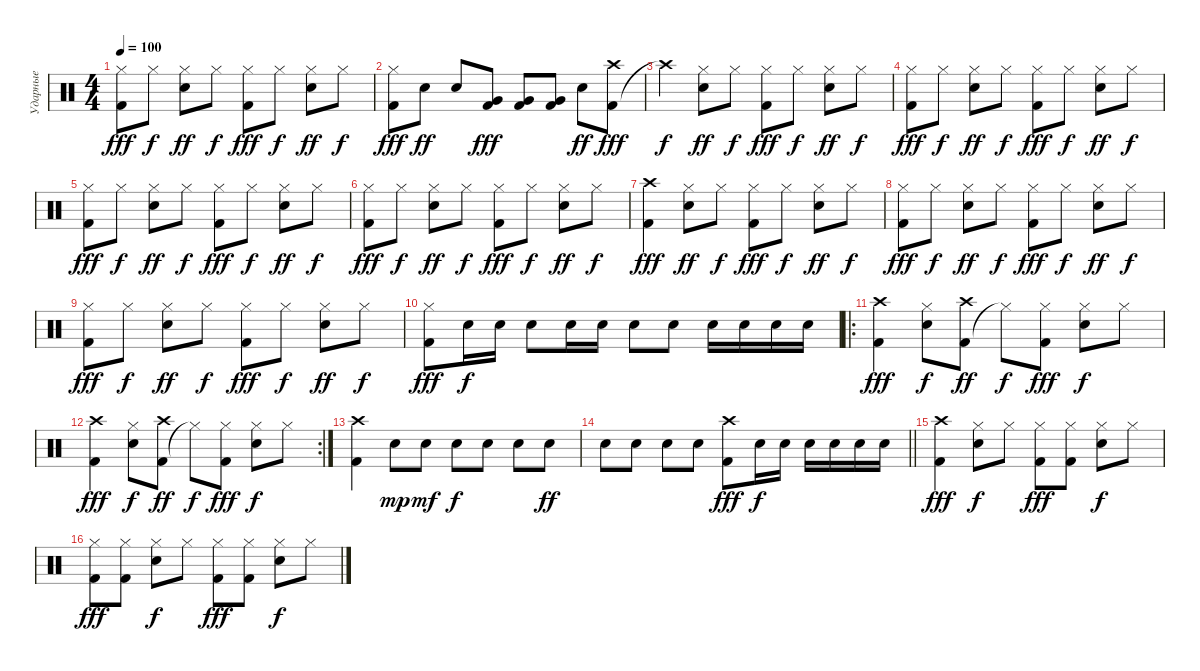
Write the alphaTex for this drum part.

\track ("Ударные" "Ударные") {instrument percussion}
\staff
\articulation defaults
\ts (4 4)
\tempo 100
\clef neutral
\ks c
("Kick (hit) 2" "Hi-Hat (closed)").8{dy fff} "Hi-Hat (closed)".8{dy f} ("Snare (hit) 2" "Hi-Hat (closed)").8{dy ff} "Hi-Hat (closed)".8{dy f} ("Kick (hit) 2" "Hi-Hat (closed)").8{dy fff} "Hi-Hat (closed)".8{dy f} ("Snare (hit) 2" "Hi-Hat (closed)").8{dy ff} "Hi-Hat (closed)".8{dy f} |
("Kick (hit) 2" "Hi-Hat (closed)").8{dy fff} "Snare (hit) 2".8{dy ff} "Snare (hit) 2".8 ("Kick (hit) 2" "Very Low Tom (hit)").8{dy fff} ("Kick (hit) 2" "Very Low Tom (hit)").8 ("Kick (hit) 2" "Very Low Tom (hit)").8 "Snare (hit) 2".8{dy ff} ("Kick (hit) 2" "Crash high (hit)").8{dy fff} |
"Crash high (hit)"{t}.4{dy f} ("Snare (hit) 2" "Hi-Hat (closed)").8{dy ff} "Hi-Hat (closed)".8{dy f} ("Kick (hit) 2" "Hi-Hat (closed)").8{dy fff} "Hi-Hat (closed)".8{dy f} ("Snare (hit) 2" "Hi-Hat (closed)").8{dy ff} "Hi-Hat (closed)".8{dy f} |
("Kick (hit) 2" "Hi-Hat (closed)").8{dy fff} "Hi-Hat (closed)".8{dy f} ("Snare (hit) 2" "Hi-Hat (closed)").8{dy ff} "Hi-Hat (closed)".8{dy f} ("Kick (hit) 2" "Hi-Hat (closed)").8{dy fff} "Hi-Hat (closed)".8{dy f} ("Snare (hit) 2" "Hi-Hat (closed)").8{dy ff} "Hi-Hat (closed)".8{dy f} |
("Kick (hit) 2" "Hi-Hat (closed)").8{dy fff} "Hi-Hat (closed)".8{dy f} ("Snare (hit) 2" "Hi-Hat (closed)").8{dy ff} "Hi-Hat (closed)".8{dy f} ("Kick (hit) 2" "Hi-Hat (closed)").8{dy fff} "Hi-Hat (closed)".8{dy f} ("Snare (hit) 2" "Hi-Hat (closed)").8{dy ff} "Hi-Hat (closed)".8{dy f} |
("Kick (hit) 2" "Hi-Hat (closed)").8{dy fff} "Hi-Hat (closed)".8{dy f} ("Snare (hit) 2" "Hi-Hat (closed)").8{dy ff} "Hi-Hat (closed)".8{dy f} ("Kick (hit) 2" "Hi-Hat (closed)").8{dy fff} "Hi-Hat (closed)".8{dy f} ("Snare (hit) 2" "Hi-Hat (closed)").8{dy ff} "Hi-Hat (closed)".8{dy f} |
("Kick (hit) 2" "Crash high (hit)").4{dy fff} ("Snare (hit) 2" "Hi-Hat (closed)").8{dy ff} "Hi-Hat (closed)".8{dy f} ("Kick (hit) 2" "Hi-Hat (closed)").8{dy fff} "Hi-Hat (closed)".8{dy f} ("Snare (hit) 2" "Hi-Hat (closed)").8{dy ff} "Hi-Hat (closed)".8{dy f} |
("Kick (hit) 2" "Hi-Hat (closed)").8{dy fff} "Hi-Hat (closed)".8{dy f} ("Snare (hit) 2" "Hi-Hat (closed)").8{dy ff} "Hi-Hat (closed)".8{dy f} ("Kick (hit) 2" "Hi-Hat (closed)").8{dy fff} "Hi-Hat (closed)".8{dy f} ("Snare (hit) 2" "Hi-Hat (closed)").8{dy ff} "Hi-Hat (closed)".8{dy f} |
("Kick (hit) 2" "Hi-Hat (closed)").8{dy fff} "Hi-Hat (closed)".8{dy f} ("Snare (hit) 2" "Hi-Hat (closed)").8{dy ff} "Hi-Hat (closed)".8{dy f} ("Kick (hit) 2" "Hi-Hat (closed)").8{dy fff} "Hi-Hat (closed)".8{dy f} ("Snare (hit) 2" "Hi-Hat (closed)").8{dy ff} "Hi-Hat (closed)".8{dy f} |
("Kick (hit) 2" "Hi-Hat (closed)").8{dy fff} "Snare (hit) 2".16{dy f} "Snare (hit) 2".16 "Snare (hit) 2".8 "Snare (hit) 2".16 "Snare (hit) 2".16 "Snare (hit) 2".8 "Snare (hit) 2".8 "Snare (hit) 2".16 "Snare (hit) 2".16 "Snare (hit) 2".16 "Snare (hit) 2".16 |
\ro
("Kick (hit) 2" "Crash high (hit)").4{dy fff} ("Snare (hit) 2" "Hi-Hat (closed)").8{dy f} ("Kick (hit) 2" "Crash high (hit)").8{dy ff} "Hi-Hat (closed)"{t}.8{dy f} ("Kick (hit) 2" "Hi-Hat (closed)").8{dy fff} ("Snare (hit) 2" "Hi-Hat (closed)").8{dy f} "Hi-Hat (closed)".8 |
\rc 2
("Kick (hit) 2" "Crash high (hit)").4{dy fff} ("Snare (hit) 2" "Hi-Hat (closed)").8{dy f} ("Kick (hit) 2" "Crash high (hit)").8{dy ff} "Hi-Hat (closed)"{t}.8{dy f} ("Kick (hit) 2" "Hi-Hat (closed)").8{dy fff} ("Snare (hit) 2" "Hi-Hat (closed)").8{dy f} "Hi-Hat (closed)".8 |
("Kick (hit) 2" "Crash high (hit)").4 "Snare (hit) 2".8{dy mp} "Snare (hit) 2".8{dy mf} "Snare (hit) 2".8{dy f} "Snare (hit) 2".8 "Snare (hit) 2".8 "Snare (hit) 2".8{dy ff} |
\barLineRight lightlight "Snare (hit) 2".8 "Snare (hit) 2".8 "Snare (hit) 2".8 "Snare (hit) 2".8
("Kick (hit) 2" "Crash high (hit)").8{dy fff} "Snare (hit) 2".16{dy f} "Snare (hit) 2".16 "Snare (hit) 2".16 "Snare (hit) 2".16 "Snare (hit) 2".16 "Snare (hit) 2".16 |
("Kick (hit) 2" "Crash high (hit)").4{dy fff} ("Snare (hit) 2" "Hi-Hat (closed)").8{dy f} "Hi-Hat (closed)".8 ("Kick (hit) 2" "Hi-Hat (closed)").8{dy fff} ("Kick (hit) 2" "Hi-Hat (closed)").8 ("Snare (hit) 2" "Hi-Hat (closed)").8{dy f} "Hi-Hat (closed)".8 |
("Kick (hit) 2" "Hi-Hat (closed)").8{dy fff} ("Kick (hit) 2" "Hi-Hat (closed)").8 ("Snare (hit) 2" "Hi-Hat (closed)").8{dy f} "Hi-Hat (closed)".8 ("Kick (hit) 2" "Hi-Hat (closed)").8{dy fff} ("Kick (hit) 2" "Hi-Hat (closed)").8 ("Snare (hit) 2" "Hi-Hat (closed)").8{dy f} "Hi-Hat (closed)".8
